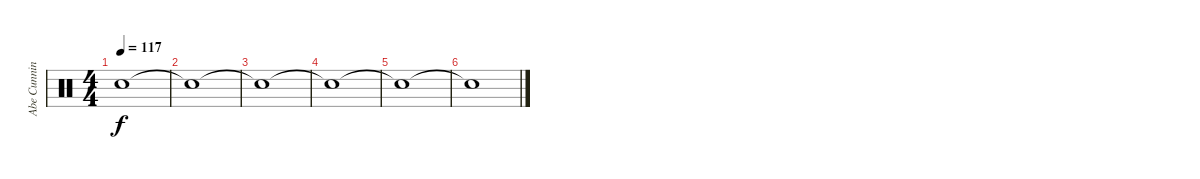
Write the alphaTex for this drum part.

\track ("Abe Cunningham" "Abe Cunnin") {instrument percussion}
\staff {score}
\articulation defaults
\ts (4 4)
\tempo 117
\clef neutral
\ks c "Snare (hit)"{t}.1{dy f}
|
"Snare (hit)"{t}.1 |
"Snare (hit)"{t}.1 |
"Snare (hit)"{t}.1 |
"Snare (hit)"{t}.1 |
"Snare (hit)"{t}.1
